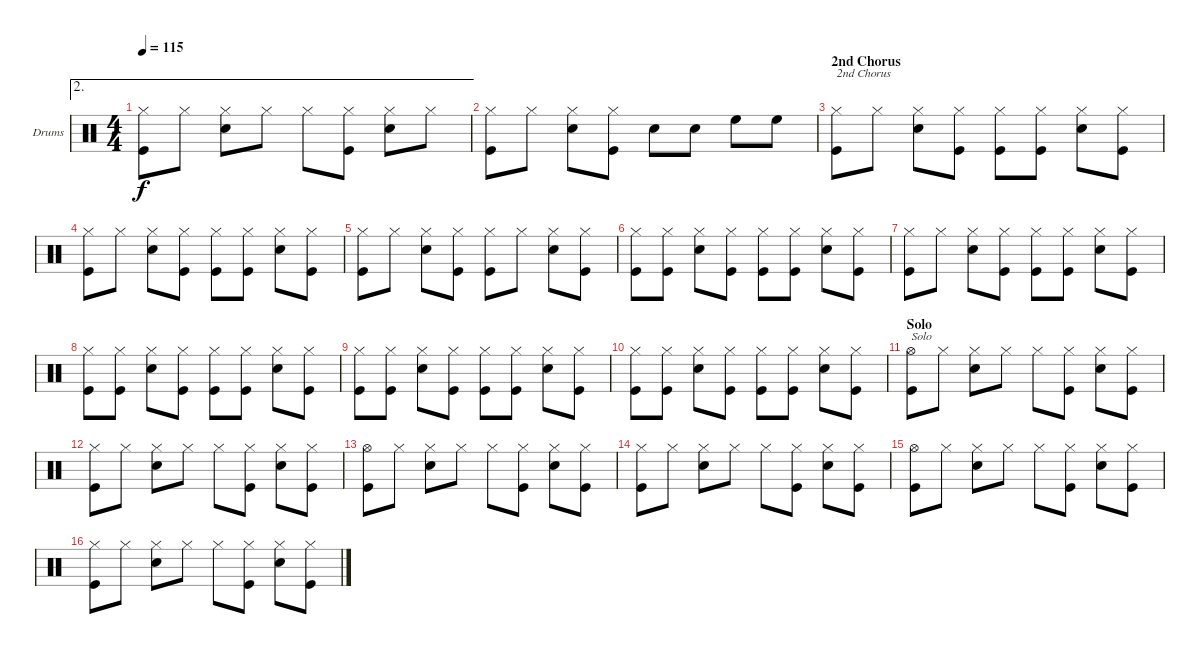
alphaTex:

\bracketExtendMode groupsimilarinstruments
\firstSystemTrackNameOrientation horizontal
\otherSystemsTrackNameOrientation horizontal
\track ("Drumkit" "Drums") {instrument percussion}
\staff {score}
\articulation defaults
\ae 2
\ts (4 4)
\tempo 115
\clef neutral
\ks c
("Hi-Hat (closed)" "Kick (hit)").8{dy f} "Hi-Hat (closed)".8 ("Hi-Hat (closed)" "Snare (hit) 2").8 "Hi-Hat (closed)".8 "Hi-Hat (closed)".8 ("Hi-Hat (closed)" "Kick (hit)").8 ("Hi-Hat (closed)" "Snare (hit) 2").8 "Hi-Hat (closed)".8 |
("Hi-Hat (closed)" "Kick (hit)").8 "Hi-Hat (closed)".8 ("Hi-Hat (closed)" "Snare (hit) 2").8 ("Hi-Hat (closed)" "Kick (hit)").8 "Snare (hit) 2".8 "Snare (hit) 2".8 "High Floor Tom (hit)".8 "High Floor Tom (hit)".8 |
\section ("" "2nd Chorus")
("Hi-Hat (closed)" "Kick (hit)").8{txt "2nd Chorus"} "Hi-Hat (closed)".8 ("Hi-Hat (closed)" "Snare (hit) 2").8 ("Hi-Hat (closed)" "Kick (hit)").8 ("Hi-Hat (closed)" "Kick (hit)").8 ("Hi-Hat (closed)" "Kick (hit)").8 ("Hi-Hat (closed)" "Snare (hit) 2").8 ("Hi-Hat (closed)" "Kick (hit)").8 |
("Hi-Hat (closed)" "Kick (hit)").8 "Hi-Hat (closed)".8 ("Hi-Hat (closed)" "Snare (hit) 2").8 ("Hi-Hat (closed)" "Kick (hit)").8 ("Hi-Hat (closed)" "Kick (hit)").8 ("Hi-Hat (closed)" "Kick (hit)").8 ("Hi-Hat (closed)" "Snare (hit) 2").8 ("Hi-Hat (closed)" "Kick (hit)").8 |
("Hi-Hat (closed)" "Kick (hit)").8 "Hi-Hat (closed)".8 ("Hi-Hat (closed)" "Snare (hit) 2").8 ("Hi-Hat (closed)" "Kick (hit)").8 ("Hi-Hat (closed)" "Kick (hit)").8 "Hi-Hat (closed)".8 ("Hi-Hat (closed)" "Snare (hit) 2").8 ("Hi-Hat (closed)" "Kick (hit)").8 |
("Hi-Hat (closed)" "Kick (hit)").8 ("Hi-Hat (closed)" "Kick (hit)").8 ("Hi-Hat (closed)" "Snare (hit) 2").8 ("Hi-Hat (closed)" "Kick (hit)").8 ("Hi-Hat (closed)" "Kick (hit)").8 ("Hi-Hat (closed)" "Kick (hit)").8 ("Hi-Hat (closed)" "Snare (hit) 2").8 ("Hi-Hat (closed)" "Kick (hit)").8 |
("Hi-Hat (closed)" "Kick (hit)").8 "Hi-Hat (closed)".8 ("Hi-Hat (closed)" "Snare (hit) 2").8 ("Hi-Hat (closed)" "Kick (hit)").8 ("Hi-Hat (closed)" "Kick (hit)").8 ("Hi-Hat (closed)" "Kick (hit)").8 ("Hi-Hat (closed)" "Snare (hit) 2").8 ("Hi-Hat (closed)" "Kick (hit)").8 |
("Hi-Hat (closed)" "Kick (hit)").8 ("Hi-Hat (closed)" "Kick (hit)").8 ("Hi-Hat (closed)" "Snare (hit) 2").8 ("Hi-Hat (closed)" "Kick (hit)").8 ("Hi-Hat (closed)" "Kick (hit)").8 ("Hi-Hat (closed)" "Kick (hit)").8 ("Hi-Hat (closed)" "Snare (hit) 2").8 ("Hi-Hat (closed)" "Kick (hit)").8 |
("Hi-Hat (closed)" "Kick (hit)").8 ("Hi-Hat (closed)" "Kick (hit)").8 ("Hi-Hat (closed)" "Snare (hit) 2").8 ("Hi-Hat (closed)" "Kick (hit)").8 ("Hi-Hat (closed)" "Kick (hit)").8 ("Hi-Hat (closed)" "Kick (hit)").8 ("Hi-Hat (closed)" "Snare (hit) 2").8 ("Hi-Hat (closed)" "Kick (hit)").8 |
("Hi-Hat (closed)" "Kick (hit)").8 ("Hi-Hat (closed)" "Kick (hit)").8 ("Hi-Hat (closed)" "Snare (hit) 2").8 ("Hi-Hat (closed)" "Kick (hit)").8 ("Hi-Hat (closed)" "Kick (hit)").8 ("Hi-Hat (closed)" "Kick (hit)").8 ("Hi-Hat (closed)" "Snare (hit) 2").8 ("Hi-Hat (closed)" "Kick (hit)").8 |
\section ("" "Solo")
("Hi-Hat (open)" "Kick (hit)").8{txt "Solo"} "Hi-Hat (closed)".8 ("Hi-Hat (closed)" "Snare (hit) 2").8 "Hi-Hat (closed)".8 "Hi-Hat (closed)".8 ("Hi-Hat (closed)" "Kick (hit)").8 ("Hi-Hat (closed)" "Snare (hit) 2").8 ("Hi-Hat (closed)" "Kick (hit)").8 |
("Hi-Hat (closed)" "Kick (hit)").8 "Hi-Hat (closed)".8 ("Hi-Hat (closed)" "Snare (hit) 2").8 "Hi-Hat (closed)".8 "Hi-Hat (closed)".8 ("Hi-Hat (closed)" "Kick (hit)").8 ("Hi-Hat (closed)" "Snare (hit) 2").8 ("Hi-Hat (closed)" "Kick (hit)").8 |
("Hi-Hat (open)" "Kick (hit)").8 "Hi-Hat (closed)".8 ("Hi-Hat (closed)" "Snare (hit) 2").8 "Hi-Hat (closed)".8 "Hi-Hat (closed)".8 ("Hi-Hat (closed)" "Kick (hit)").8 ("Hi-Hat (closed)" "Snare (hit) 2").8 ("Hi-Hat (closed)" "Kick (hit)").8 |
("Hi-Hat (closed)" "Kick (hit)").8 "Hi-Hat (closed)".8 ("Hi-Hat (closed)" "Snare (hit) 2").8 "Hi-Hat (closed)".8 "Hi-Hat (closed)".8 ("Hi-Hat (closed)" "Kick (hit)").8 ("Hi-Hat (closed)" "Snare (hit) 2").8 ("Hi-Hat (closed)" "Kick (hit)").8 |
("Hi-Hat (open)" "Kick (hit)").8 "Hi-Hat (closed)".8 ("Hi-Hat (closed)" "Snare (hit) 2").8 "Hi-Hat (closed)".8 "Hi-Hat (closed)".8 ("Hi-Hat (closed)" "Kick (hit)").8 ("Hi-Hat (closed)" "Snare (hit) 2").8 ("Hi-Hat (closed)" "Kick (hit)").8 |
("Hi-Hat (closed)" "Kick (hit)").8 "Hi-Hat (closed)".8 ("Hi-Hat (closed)" "Snare (hit) 2").8 "Hi-Hat (closed)".8 "Hi-Hat (closed)".8 ("Hi-Hat (closed)" "Kick (hit)").8 ("Hi-Hat (closed)" "Snare (hit) 2").8 ("Hi-Hat (closed)" "Kick (hit)").8
